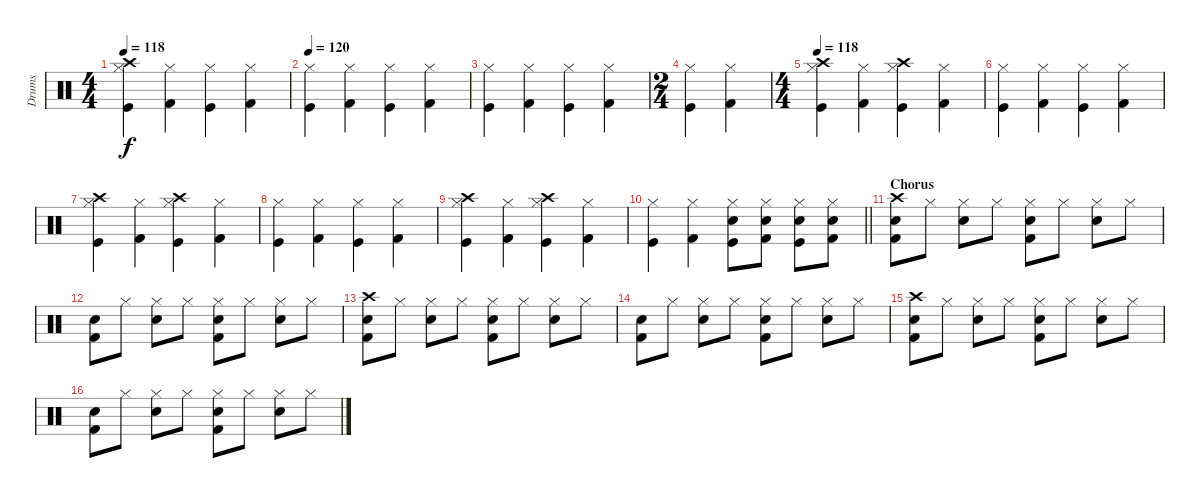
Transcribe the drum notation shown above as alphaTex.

\track ("Drums" "Drums") {instrument percussion}
\staff {score}
\articulation defaults
\ts (4 4)
\tempo 118
\clef neutral
\ks c
("Crash high (hit)" "Kick (hit)" "Hi-Hat (closed)").4{dy f} ("Hi-Hat (closed)" "Kick (hit) 2").4 ("Kick (hit)" "Hi-Hat (closed)").4 ("Hi-Hat (closed)" "Kick (hit) 2").4 |
\tempo 120
("Kick (hit)" "Hi-Hat (closed)").4 ("Hi-Hat (closed)" "Kick (hit) 2").4 ("Kick (hit)" "Hi-Hat (closed)").4 ("Hi-Hat (closed)" "Kick (hit) 2").4 |
("Kick (hit)" "Hi-Hat (closed)").4 ("Hi-Hat (closed)" "Kick (hit) 2").4 ("Kick (hit)" "Hi-Hat (closed)").4 ("Hi-Hat (closed)" "Kick (hit) 2").4 |
\ts (2 4)
("Kick (hit)" "Hi-Hat (closed)").4 ("Hi-Hat (closed)" "Kick (hit) 2").4 |
\ts (4 4)
\tempo 118
("Crash high (hit)" "Kick (hit)" "Hi-Hat (closed)").4 ("Hi-Hat (closed)" "Kick (hit) 2").4 ("Crash high (hit)" "Kick (hit)" "Hi-Hat (closed)").4 ("Hi-Hat (closed)" "Kick (hit) 2").4 |
("Kick (hit)" "Hi-Hat (closed)").4 ("Hi-Hat (closed)" "Kick (hit) 2").4 ("Kick (hit)" "Hi-Hat (closed)").4 ("Hi-Hat (closed)" "Kick (hit) 2").4 |
("Crash high (hit)" "Kick (hit)" "Hi-Hat (closed)").4 ("Hi-Hat (closed)" "Kick (hit) 2").4 ("Crash high (hit)" "Kick (hit)" "Hi-Hat (closed)").4 ("Hi-Hat (closed)" "Kick (hit) 2").4 |
("Kick (hit)" "Hi-Hat (closed)").4 ("Hi-Hat (closed)" "Kick (hit) 2").4 ("Kick (hit)" "Hi-Hat (closed)").4 ("Hi-Hat (closed)" "Kick (hit) 2").4 |
("Crash high (hit)" "Kick (hit)" "Hi-Hat (closed)").4 ("Hi-Hat (closed)" "Kick (hit) 2").4 ("Crash high (hit)" "Kick (hit)" "Hi-Hat (closed)").4 ("Hi-Hat (closed)" "Kick (hit) 2").4 |
\barLineRight lightlight
("Kick (hit)" "Hi-Hat (closed)").4 ("Hi-Hat (closed)" "Kick (hit) 2").4 ("Electric Snare (hit)" "Kick (hit)" "Hi-Hat (closed)").8 ("Electric Snare (hit)" "Hi-Hat (closed)" "Kick (hit) 2").8 ("Electric Snare (hit)" "Kick (hit)" "Hi-Hat (closed)").8 ("Electric Snare (hit)" "Hi-Hat (closed)" "Kick (hit) 2").8 |
\section ("" "Chorus")
("Electric Snare (hit)" "Kick (hit) 2" "Crash high (hit)").8 "Hi-Hat (closed)".8 ("Hi-Hat (closed)" "Electric Snare (hit)").8 "Hi-Hat (closed)".8 ("Hi-Hat (closed)" "Kick (hit) 2" "Electric Snare (hit)").8 "Hi-Hat (closed)".8 ("Hi-Hat (closed)" "Electric Snare (hit)").8 "Hi-Hat (closed)".8 |
("Electric Snare (hit)" "Kick (hit) 2").8 "Hi-Hat (closed)".8 ("Hi-Hat (closed)" "Electric Snare (hit)").8 "Hi-Hat (closed)".8 ("Hi-Hat (closed)" "Kick (hit) 2" "Electric Snare (hit)").8 "Hi-Hat (closed)".8 ("Hi-Hat (closed)" "Electric Snare (hit)").8 "Hi-Hat (closed)".8 |
("Electric Snare (hit)" "Kick (hit) 2" "Crash high (hit)").8 "Hi-Hat (closed)".8 ("Hi-Hat (closed)" "Electric Snare (hit)").8 "Hi-Hat (closed)".8 ("Hi-Hat (closed)" "Kick (hit) 2" "Electric Snare (hit)").8 "Hi-Hat (closed)".8 ("Hi-Hat (closed)" "Electric Snare (hit)").8 "Hi-Hat (closed)".8 |
("Electric Snare (hit)" "Kick (hit) 2").8 "Hi-Hat (closed)".8 ("Hi-Hat (closed)" "Electric Snare (hit)").8 "Hi-Hat (closed)".8 ("Hi-Hat (closed)" "Kick (hit) 2" "Electric Snare (hit)").8 "Hi-Hat (closed)".8 ("Hi-Hat (closed)" "Electric Snare (hit)").8 "Hi-Hat (closed)".8 |
("Electric Snare (hit)" "Kick (hit) 2" "Crash high (hit)").8 "Hi-Hat (closed)".8 ("Hi-Hat (closed)" "Electric Snare (hit)").8 "Hi-Hat (closed)".8 ("Hi-Hat (closed)" "Kick (hit) 2" "Electric Snare (hit)").8 "Hi-Hat (closed)".8 ("Hi-Hat (closed)" "Electric Snare (hit)").8 "Hi-Hat (closed)".8 |
("Electric Snare (hit)" "Kick (hit) 2").8 "Hi-Hat (closed)".8 ("Hi-Hat (closed)" "Electric Snare (hit)").8 "Hi-Hat (closed)".8 ("Hi-Hat (closed)" "Kick (hit) 2" "Electric Snare (hit)").8 "Hi-Hat (closed)".8 ("Hi-Hat (closed)" "Electric Snare (hit)").8 "Hi-Hat (closed)".8
